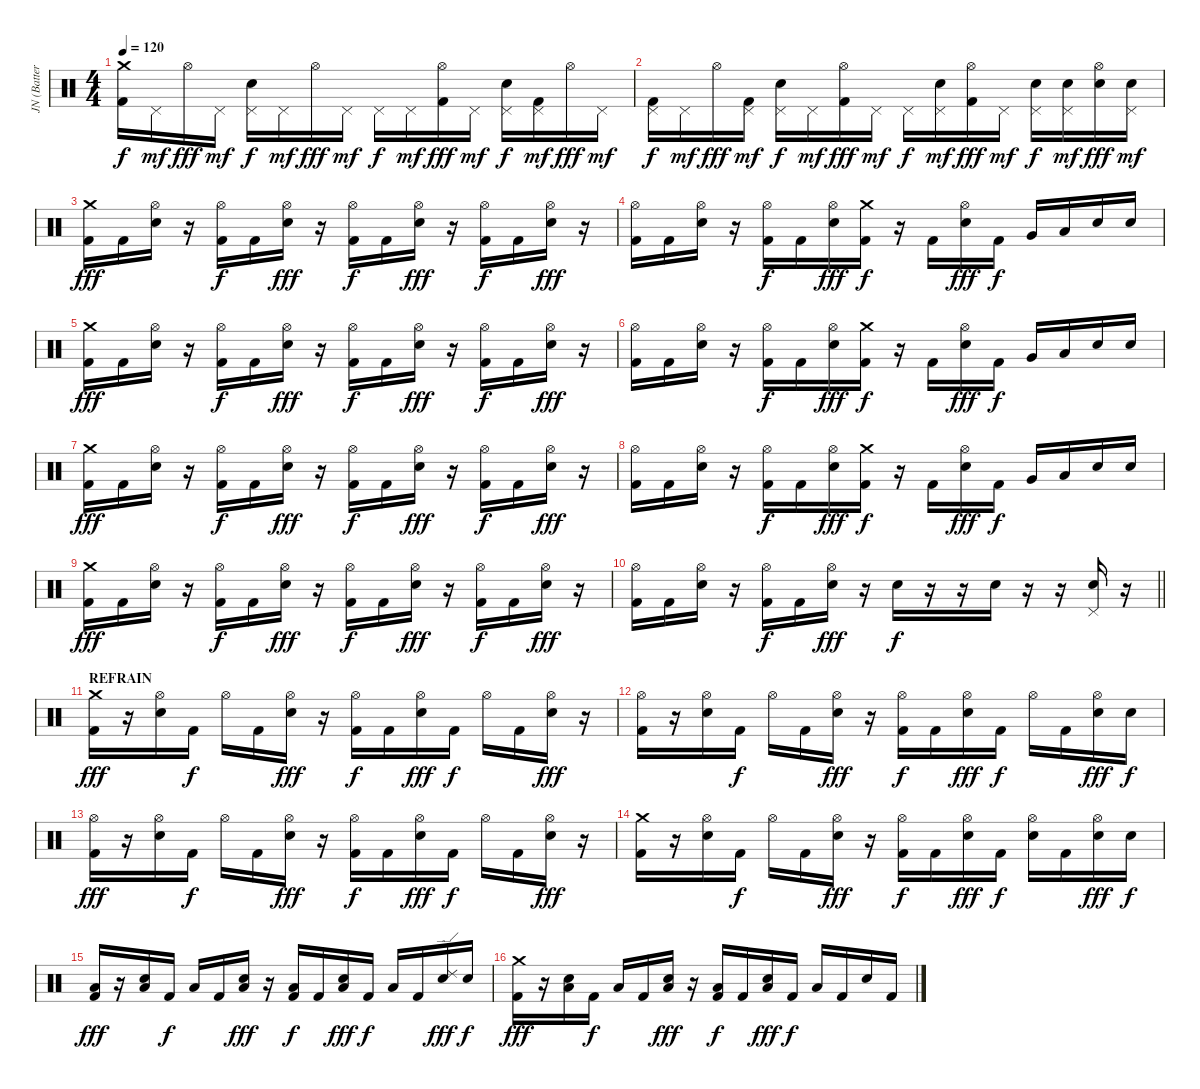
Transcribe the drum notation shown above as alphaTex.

\track ("JN (Batterie)" "JN (Batter") {instrument percussion}
\staff {score}
\articulation defaults
\ts (4 4)
\tempo 120
\clef neutral
\ks c
("Crash medium (hit)" "Kick (hit) 2").16{dy f} "Pedal Hi-Hat (hit)".16{dy mf} "Hi-Hat (open)".16{dy fff} "Pedal Hi-Hat (hit)".16{dy mf} ("Pedal Hi-Hat (hit)" "Electric Snare (hit)").16{dy f} "Pedal Hi-Hat (hit)".16{dy mf} "Hi-Hat (open)".16{dy fff} "Pedal Hi-Hat (hit)".16{dy mf} "Pedal Hi-Hat (hit)".16{dy f} "Pedal Hi-Hat (hit)".16{dy mf} ("Hi-Hat (open)" "Kick (hit) 2").16{dy fff} "Pedal Hi-Hat (hit)".16{dy mf} ("Pedal Hi-Hat (hit)" "Electric Snare (hit)").16{dy f} ("Pedal Hi-Hat (hit)" "Kick (hit) 2").16{dy mf} "Hi-Hat (open)".16{dy fff} "Pedal Hi-Hat (hit)".16{dy mf} |
("Pedal Hi-Hat (hit)" "Kick (hit) 2").16{dy f} "Pedal Hi-Hat (hit)".16{dy mf} "Hi-Hat (open)".16{dy fff} ("Pedal Hi-Hat (hit)" "Kick (hit) 2").16{dy mf} ("Pedal Hi-Hat (hit)" "Electric Snare (hit)").16{dy f} "Pedal Hi-Hat (hit)".16{dy mf} ("Hi-Hat (open)" "Kick (hit) 2").16{dy fff} "Pedal Hi-Hat (hit)".16{dy mf} "Pedal Hi-Hat (hit)".16{dy f} ("Pedal Hi-Hat (hit)" "Electric Snare (hit)").16{dy mf} ("Hi-Hat (open)" "Kick (hit) 2").16{dy fff} "Pedal Hi-Hat (hit)".16{dy mf} ("Pedal Hi-Hat (hit)" "Electric Snare (hit)").16{dy f} ("Pedal Hi-Hat (hit)" "Electric Snare (hit)").16{dy mf} ("Hi-Hat (open)" "Electric Snare (hit)").16{dy fff} ("Pedal Hi-Hat (hit)" "Electric Snare (hit)").16{dy mf} |
("Crash medium (hit)" "Kick (hit) 2").16{dy fff} "Kick (hit) 2".16 ("Hi-Hat (open)" "Electric Snare (hit)").16 r.16 ("Hi-Hat (open)" "Kick (hit) 2").16{dy f} "Kick (hit) 2".16 ("Hi-Hat (open)" "Electric Snare (hit)").16{dy fff} r.16 ("Hi-Hat (open)" "Kick (hit) 2").16{dy f} "Kick (hit) 2".16 ("Hi-Hat (open)" "Electric Snare (hit)").16{dy fff} r.16 ("Hi-Hat (open)" "Kick (hit) 2").16{dy f} "Kick (hit) 2".16 ("Hi-Hat (open)" "Electric Snare (hit)").16{dy fff} r.16 |
("Hi-Hat (open)" "Kick (hit) 2").16 "Kick (hit) 2".16 ("Hi-Hat (open)" "Electric Snare (hit)").16 r.16 ("Hi-Hat (open)" "Kick (hit) 2").16{dy f} "Kick (hit) 2".16 ("Hi-Hat (open)" "Electric Snare (hit)").16{dy fff} ("Crash medium (hit)" "Kick (hit) 2").16{dy f} r.16 "Kick (hit) 2".16 ("Hi-Hat (open)" "Electric Snare (hit)").16{dy fff} "Kick (hit) 2".16{dy f} "Very Low Tom (hit)".16 "Low Tom (hit)".16 "Electric Snare (hit)".16 "Electric Snare (hit)".16 |
("Crash medium (hit)" "Kick (hit) 2").16{dy fff} "Kick (hit) 2".16 ("Hi-Hat (open)" "Electric Snare (hit)").16 r.16 ("Hi-Hat (open)" "Kick (hit) 2").16{dy f} "Kick (hit) 2".16 ("Hi-Hat (open)" "Electric Snare (hit)").16{dy fff} r.16 ("Hi-Hat (open)" "Kick (hit) 2").16{dy f} "Kick (hit) 2".16 ("Hi-Hat (open)" "Electric Snare (hit)").16{dy fff} r.16 ("Hi-Hat (open)" "Kick (hit) 2").16{dy f} "Kick (hit) 2".16 ("Hi-Hat (open)" "Electric Snare (hit)").16{dy fff} r.16 |
("Hi-Hat (open)" "Kick (hit) 2").16 "Kick (hit) 2".16 ("Hi-Hat (open)" "Electric Snare (hit)").16 r.16 ("Hi-Hat (open)" "Kick (hit) 2").16{dy f} "Kick (hit) 2".16 ("Hi-Hat (open)" "Electric Snare (hit)").16{dy fff} ("Crash medium (hit)" "Kick (hit) 2").16{dy f} r.16 "Kick (hit) 2".16 ("Hi-Hat (open)" "Electric Snare (hit)").16{dy fff} "Kick (hit) 2".16{dy f} "Very Low Tom (hit)".16 "Low Tom (hit)".16 "Electric Snare (hit)".16 "Electric Snare (hit)".16 |
("Crash medium (hit)" "Kick (hit) 2").16{dy fff} "Kick (hit) 2".16 ("Hi-Hat (open)" "Electric Snare (hit)").16 r.16 ("Hi-Hat (open)" "Kick (hit) 2").16{dy f} "Kick (hit) 2".16 ("Hi-Hat (open)" "Electric Snare (hit)").16{dy fff} r.16 ("Hi-Hat (open)" "Kick (hit) 2").16{dy f} "Kick (hit) 2".16 ("Hi-Hat (open)" "Electric Snare (hit)").16{dy fff} r.16 ("Hi-Hat (open)" "Kick (hit) 2").16{dy f} "Kick (hit) 2".16 ("Hi-Hat (open)" "Electric Snare (hit)").16{dy fff} r.16 |
("Hi-Hat (open)" "Kick (hit) 2").16 "Kick (hit) 2".16 ("Hi-Hat (open)" "Electric Snare (hit)").16 r.16 ("Hi-Hat (open)" "Kick (hit) 2").16{dy f} "Kick (hit) 2".16 ("Hi-Hat (open)" "Electric Snare (hit)").16{dy fff} ("Crash medium (hit)" "Kick (hit) 2").16{dy f} r.16 "Kick (hit) 2".16 ("Hi-Hat (open)" "Electric Snare (hit)").16{dy fff} "Kick (hit) 2".16{dy f} "Very Low Tom (hit)".16 "Low Tom (hit)".16 "Electric Snare (hit)".16 "Electric Snare (hit)".16 |
("Crash medium (hit)" "Kick (hit) 2").16{dy fff} "Kick (hit) 2".16 ("Hi-Hat (open)" "Electric Snare (hit)").16 r.16 ("Hi-Hat (open)" "Kick (hit) 2").16{dy f} "Kick (hit) 2".16 ("Hi-Hat (open)" "Electric Snare (hit)").16{dy fff} r.16 ("Hi-Hat (open)" "Kick (hit) 2").16{dy f} "Kick (hit) 2".16 ("Hi-Hat (open)" "Electric Snare (hit)").16{dy fff} r.16 ("Hi-Hat (open)" "Kick (hit) 2").16{dy f} "Kick (hit) 2".16 ("Hi-Hat (open)" "Electric Snare (hit)").16{dy fff} r.16 |
\barLineRight lightlight
("Hi-Hat (open)" "Kick (hit) 2").16 "Kick (hit) 2".16 ("Hi-Hat (open)" "Electric Snare (hit)").16 r.16 ("Hi-Hat (open)" "Kick (hit) 2").16{dy f} "Kick (hit) 2".16 ("Hi-Hat (open)" "Electric Snare (hit)").16{dy fff} r.16 "Electric Snare (hit)".16{dy f} r.16 r.16 "Electric Snare (hit)".16 r.16 r.16 ("Pedal Hi-Hat (hit)" "Electric Snare (hit)").16 r.16 |
\section ("" "REFRAIN")
("Crash medium (hit)" "Kick (hit) 2").16{dy fff} r.16 ("Hi-Hat (open)" "Electric Snare (hit)").16 "Kick (hit) 2".16{dy f} "Hi-Hat (open)".16 "Kick (hit) 2".16 ("Hi-Hat (open)" "Electric Snare (hit)").16{dy fff} r.16 ("Hi-Hat (open)" "Kick (hit) 2").16{dy f} "Kick (hit) 2".16 ("Hi-Hat (open)" "Electric Snare (hit)").16{dy fff} "Kick (hit) 2".16{dy f} "Hi-Hat (open)".16 "Kick (hit) 2".16 ("Hi-Hat (open)" "Electric Snare (hit)").16{dy fff} r.16 |
("Hi-Hat (open)" "Kick (hit) 2").16 r.16 ("Hi-Hat (open)" "Electric Snare (hit)").16 "Kick (hit) 2".16{dy f} "Hi-Hat (open)".16 "Kick (hit) 2".16 ("Hi-Hat (open)" "Electric Snare (hit)").16{dy fff} r.16 ("Hi-Hat (open)" "Kick (hit) 2").16{dy f} "Kick (hit) 2".16 ("Hi-Hat (open)" "Electric Snare (hit)").16{dy fff} "Kick (hit) 2".16{dy f} "Hi-Hat (open)".16 "Kick (hit) 2".16 ("Hi-Hat (open)" "Electric Snare (hit)").16{dy fff} "Electric Snare (hit)".16{dy f} |
("Hi-Hat (open)" "Kick (hit) 2").16{dy fff} r.16 ("Hi-Hat (open)" "Electric Snare (hit)").16 "Kick (hit) 2".16{dy f} "Hi-Hat (open)".16 "Kick (hit) 2".16 ("Hi-Hat (open)" "Electric Snare (hit)").16{dy fff} r.16 ("Hi-Hat (open)" "Kick (hit) 2").16{dy f} "Kick (hit) 2".16 ("Hi-Hat (open)" "Electric Snare (hit)").16{dy fff} "Kick (hit) 2".16{dy f} "Hi-Hat (open)".16 "Kick (hit) 2".16 ("Hi-Hat (open)" "Electric Snare (hit)").16{dy fff} r.16 |
("Crash medium (hit)" "Kick (hit) 2").16 r.16 ("Hi-Hat (open)" "Electric Snare (hit)").16 "Kick (hit) 2".16{dy f} "Hi-Hat (open)".16 "Kick (hit) 2".16 ("Hi-Hat (open)" "Electric Snare (hit)").16{dy fff} r.16 ("Hi-Hat (open)" "Kick (hit) 2").16{dy f} "Kick (hit) 2".16 ("Hi-Hat (open)" "Electric Snare (hit)").16{dy fff} "Kick (hit) 2".16{dy f} ("Hi-Hat (open)" "Electric Snare (hit)").16 "Kick (hit) 2".16 ("Hi-Hat (open)" "Electric Snare (hit)").16{dy fff} "Electric Snare (hit)".16{dy f} |
("Low Tom (hit)" "Kick (hit) 2").16{dy fff} r.16 ("Low Tom (hit)" "Electric Snare (hit)").16 "Kick (hit) 2".16{dy f} "Low Tom (hit)".16 "Kick (hit) 2".16 ("Low Tom (hit)" "Electric Snare (hit)").16{dy fff} r.16 ("Low Tom (hit)" "Kick (hit) 2").16{dy f} "Kick (hit) 2".16 ("Low Tom (hit)" "Electric Snare (hit)").16{dy fff} "Kick (hit) 2".16{dy f} "Low Tom (hit)".16 "Kick (hit) 2".16 ("Ride (edge) 2" "Electric Snare (hit)").16{dy fff} "Electric Snare (hit)".16{dy f} |
("Crash medium (hit)" "Kick (hit) 2").16{dy fff} r.16 ("Low Tom (hit)" "Electric Snare (hit)").16 "Kick (hit) 2".16{dy f} "Low Tom (hit)".16 "Kick (hit) 2".16 ("Low Tom (hit)" "Electric Snare (hit)").16{dy fff} r.16 ("Low Tom (hit)" "Kick (hit) 2").16{dy f} "Kick (hit) 2".16 ("Low Tom (hit)" "Electric Snare (hit)").16{dy fff} "Kick (hit) 2".16{dy f} "Low Tom (hit)".16 "Kick (hit) 2".16 "Electric Snare (hit)".16 "Kick (hit) 2".16
